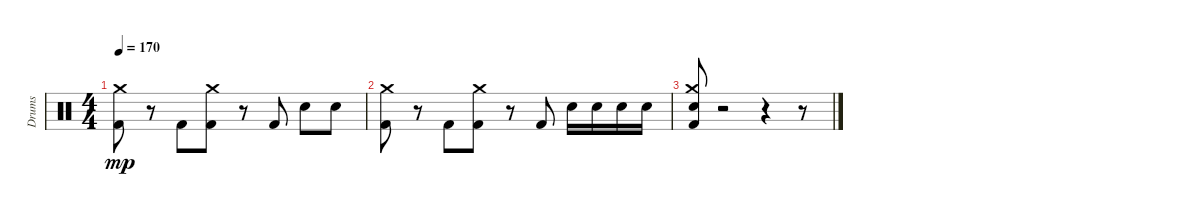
\track ("Drums" "Drums") {instrument percussion}
\staff {score}
\articulation defaults
\ts (4 4)
\tempo 170
\clef neutral
\ks c
("Kick (hit) 2" "Crash medium (hit)").8{dy mp} r.8 "Kick (hit) 2".8 ("Crash medium (hit)" "Kick (hit) 2").8 r.8 "Kick (hit) 2".8 "Electric Snare (hit)".8 "Electric Snare (hit)".8 |
("Kick (hit) 2" "Crash medium (hit)").8 r.8 "Kick (hit) 2".8 ("Kick (hit) 2" "Crash medium (hit)").8 r.8 "Kick (hit) 2".8 "Electric Snare (hit)".16 "Electric Snare (hit)".16 "Electric Snare (hit)".16 "Electric Snare (hit)".16 |
("Crash medium (hit)" "Electric Snare (hit)" "Kick (hit) 2").8 r.2 r.4 r.8
